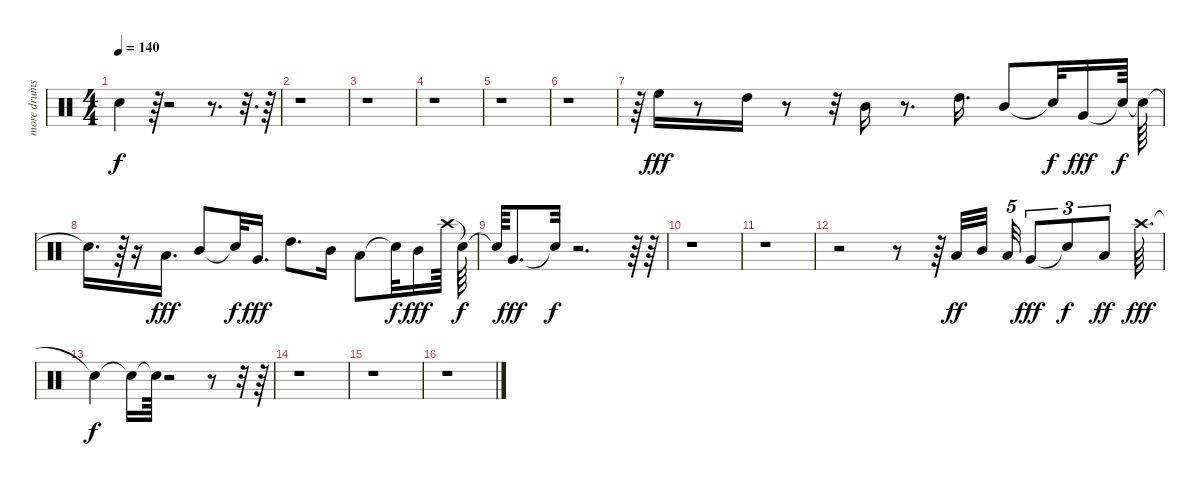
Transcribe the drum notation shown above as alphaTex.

\track ("more drums" "more drums") {instrument percussion}
\staff {score}
\articulation defaults
\ts (4 4)
\tempo 140
\clef neutral
\ks c "Snare (hit)"{t}.4{dy f}
r.64 r.2 r.8{d} r.32{d} r.64 |
r.1 |
r.1 |
r.1 |
r.1 |
r.1 |
r.64 "High Floor Tom (hit)".16{dy fff} r.8 "High Tom (hit)".16 r.8 r.32 "Mid Tom (hit)".16 r.8{d} "High Tom (hit)".16{d} "Mid Tom (hit)".8 "Snare (hit)"{t}.32{dy f} "Very Low Tom (hit)".16{dy fff} "Snare (hit)"{t}.64{dy f} "Snare (hit)"{t}.64 |
"Snare (hit)"{t}.16{d} r.64 r.16 "Low Tom (hit)".16{d dy fff} "Mid Tom (hit)".8 "Snare (hit)"{t}.32{dy f} "Very Low Tom (hit)".16{d dy fff} "High Tom (hit)".8{d} "Mid Tom (hit)".16 "Low Tom (hit)".8 "Snare (hit)"{t}.32{dy f} "Mid Tom (hit)".16{dy fff} "Crash high (hit)".64 "Snare (hit)"{t}.64{dy f} |
"Snare (hit)"{t}.64 "Very Low Tom (hit)".8{d dy fff} "Snare (hit)"{t}.32{dy f} r.2{d} r.64 r.64 |
r.1 |
r.1 |
r.2 r.8 r.64 "Low Tom (hit)".32{dy ff} "Mid Tom (hit)".32{beam splitsecondary} "Low Tom (hit)".32{tu (5 4)} "Very Low Tom (hit)".8{tu (3 2) dy fff} "Snare (hit)"{t}.8{tu (3 2) dy f} "Low Tom (hit)".8{tu (3 2) dy ff} "Crash high (hit)".64{d dy fff} |
"Snare (hit)"{t}.4{dy f} "Snare (hit)"{t}.16 "Snare (hit)"{t}.64 r.2 r.8 r.32 r.64 |
r.1 |
r.1 |
r.1
